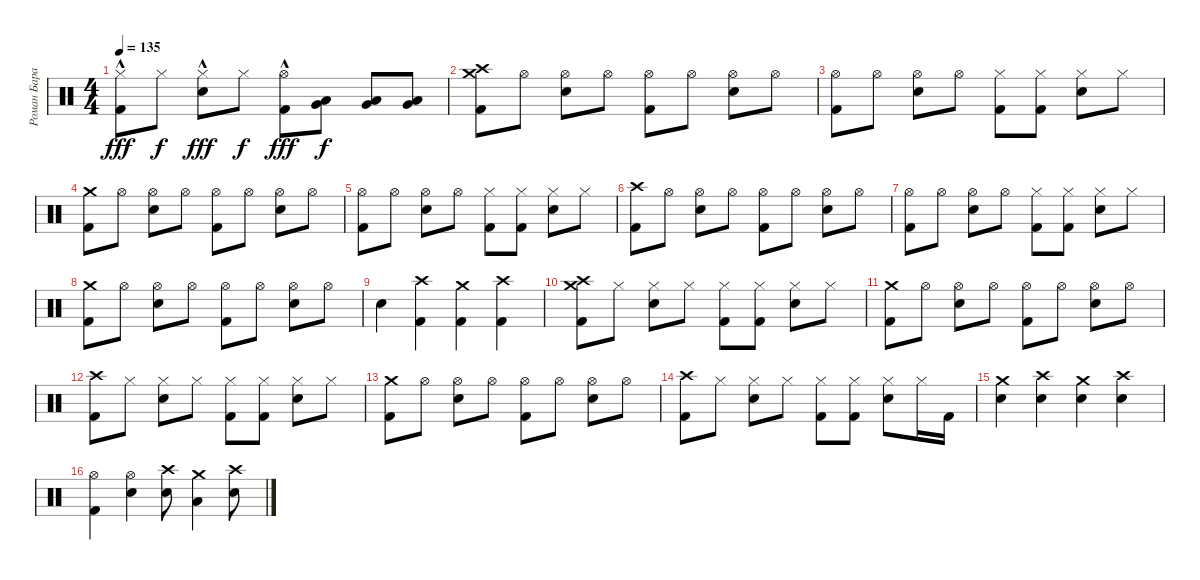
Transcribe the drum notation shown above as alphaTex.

\track ("Роман Баранюк" "Роман Бара") {instrument percussion}
\staff {score}
\articulation defaults
\ts (4 4)
\tempo 135
\clef neutral
\ks c
("Hi-Hat (closed)"{hac} "Kick (hit) 2").8{dy fff} "Hi-Hat (closed)".8{dy f} ("Hi-Hat (closed)"{hac} "Snare (hit) 2").8{dy fff} "Hi-Hat (closed)".8{dy f} ("Hi-Hat (open)"{hac} "Kick (hit) 2").8{dy fff} ("Low Tom (hit)" "Very Low Tom (hit)").8{dy f} ("Low Tom (hit)" "Very Low Tom (hit)").8 ("Low Tom (hit)" "Very Low Tom (hit)").8 |
("Crash high (hit)" "Crash medium (hit)" "Kick (hit) 2").8 "Hi-Hat (open)".8 ("Hi-Hat (open)" "Snare (hit) 2").8 "Hi-Hat (open)".8 ("Hi-Hat (open)" "Kick (hit) 2").8 "Hi-Hat (open)".8 ("Hi-Hat (open)" "Snare (hit) 2").8 "Hi-Hat (open)".8 |
("Hi-Hat (open)" "Kick (hit) 2").8 "Hi-Hat (open)".8 ("Hi-Hat (open)" "Snare (hit) 2").8 "Hi-Hat (open)".8 ("Hi-Hat (closed)" "Kick (hit) 2").8 ("Hi-Hat (closed)" "Kick (hit) 2").8 ("Hi-Hat (closed)" "Snare (hit) 2").8 "Hi-Hat (closed)".8 |
("Crash medium (hit)" "Kick (hit) 2").8 "Hi-Hat (open)".8 ("Hi-Hat (open)" "Snare (hit) 2").8 "Hi-Hat (open)".8 ("Hi-Hat (open)" "Kick (hit) 2").8 "Hi-Hat (open)".8 ("Hi-Hat (open)" "Snare (hit) 2").8 "Hi-Hat (open)".8 |
("Hi-Hat (open)" "Kick (hit) 2").8 "Hi-Hat (open)".8 ("Hi-Hat (open)" "Snare (hit) 2").8 "Hi-Hat (open)".8 ("Hi-Hat (closed)" "Kick (hit) 2").8 ("Hi-Hat (closed)" "Kick (hit) 2").8 ("Hi-Hat (closed)" "Snare (hit) 2").8 "Hi-Hat (closed)".8 |
("Crash high (hit)" "Kick (hit) 2").8 "Hi-Hat (open)".8 ("Hi-Hat (open)" "Snare (hit) 2").8 "Hi-Hat (open)".8 ("Hi-Hat (open)" "Kick (hit) 2").8 "Hi-Hat (open)".8 ("Hi-Hat (open)" "Snare (hit) 2").8 "Hi-Hat (open)".8 |
("Hi-Hat (open)" "Kick (hit) 2").8 "Hi-Hat (open)".8 ("Hi-Hat (open)" "Snare (hit) 2").8 "Hi-Hat (open)".8 ("Hi-Hat (closed)" "Kick (hit) 2").8 ("Hi-Hat (closed)" "Kick (hit) 2").8 ("Hi-Hat (closed)" "Snare (hit) 2").8 "Hi-Hat (closed)".8 |
("Crash medium (hit)" "Kick (hit) 2").8 "Hi-Hat (open)".8 ("Hi-Hat (open)" "Snare (hit) 2").8 "Hi-Hat (open)".8 ("Hi-Hat (open)" "Kick (hit) 2").8 "Hi-Hat (open)".8 ("Hi-Hat (open)" "Snare (hit) 2").8 "Hi-Hat (open)".8 |
"Snare (hit) 2".4 ("Crash high (hit)" "Kick (hit) 2").4 ("Crash medium (hit)" "Kick (hit) 2").4 ("Crash high (hit)" "Kick (hit) 2").4 |
("Crash high (hit)" "Crash medium (hit)" "Kick (hit) 2").8 "Hi-Hat (closed)".8 ("Hi-Hat (closed)" "Snare (hit) 2").8 "Hi-Hat (closed)".8 ("Hi-Hat (closed)" "Kick (hit) 2").8 ("Hi-Hat (closed)" "Kick (hit) 2").8 ("Hi-Hat (closed)" "Snare (hit) 2").8 "Hi-Hat (closed)".8 |
("Crash medium (hit)" "Kick (hit) 2").8 "Hi-Hat (open)".8 ("Hi-Hat (open)" "Snare (hit) 2").8 "Hi-Hat (open)".8 ("Hi-Hat (open)" "Kick (hit) 2").8 "Hi-Hat (open)".8 ("Hi-Hat (open)" "Snare (hit) 2").8 "Hi-Hat (open)".8 |
("Crash high (hit)" "Kick (hit) 2").8 "Hi-Hat (closed)".8 ("Hi-Hat (closed)" "Snare (hit) 2").8 "Hi-Hat (closed)".8 ("Hi-Hat (closed)" "Kick (hit) 2").8 ("Hi-Hat (closed)" "Kick (hit) 2").8 ("Hi-Hat (closed)" "Snare (hit) 2").8 "Hi-Hat (closed)".8 |
("Crash medium (hit)" "Kick (hit) 2").8 "Hi-Hat (open)".8 ("Hi-Hat (open)" "Snare (hit) 2").8 "Hi-Hat (open)".8 ("Hi-Hat (open)" "Kick (hit) 2").8 "Hi-Hat (open)".8 ("Hi-Hat (open)" "Snare (hit) 2").8 "Hi-Hat (open)".8 |
("Crash high (hit)" "Kick (hit) 2").8 "Hi-Hat (closed)".8 ("Hi-Hat (closed)" "Snare (hit) 2").8 "Hi-Hat (closed)".8 ("Hi-Hat (closed)" "Kick (hit) 2").8 ("Hi-Hat (closed)" "Kick (hit) 2").8 ("Hi-Hat (closed)" "Snare (hit) 2").8 "Hi-Hat (closed)".16 "Kick (hit) 2".16 |
("Crash medium (hit)" "Snare (hit) 2").4 ("Crash high (hit)" "Snare (hit) 2").4 ("Crash medium (hit)" "Snare (hit) 2").4 ("Crash high (hit)" "Snare (hit) 2").4 |
("Hi-Hat (open)" "Kick (hit) 2").4 ("Hi-Hat (open)" "Snare (hit) 2").4 ("Crash high (hit)" "Snare (hit) 2").8 ("Crash medium (hit)" "Low Tom (hit)").4 ("Crash high (hit)" "Snare (hit) 2").8
